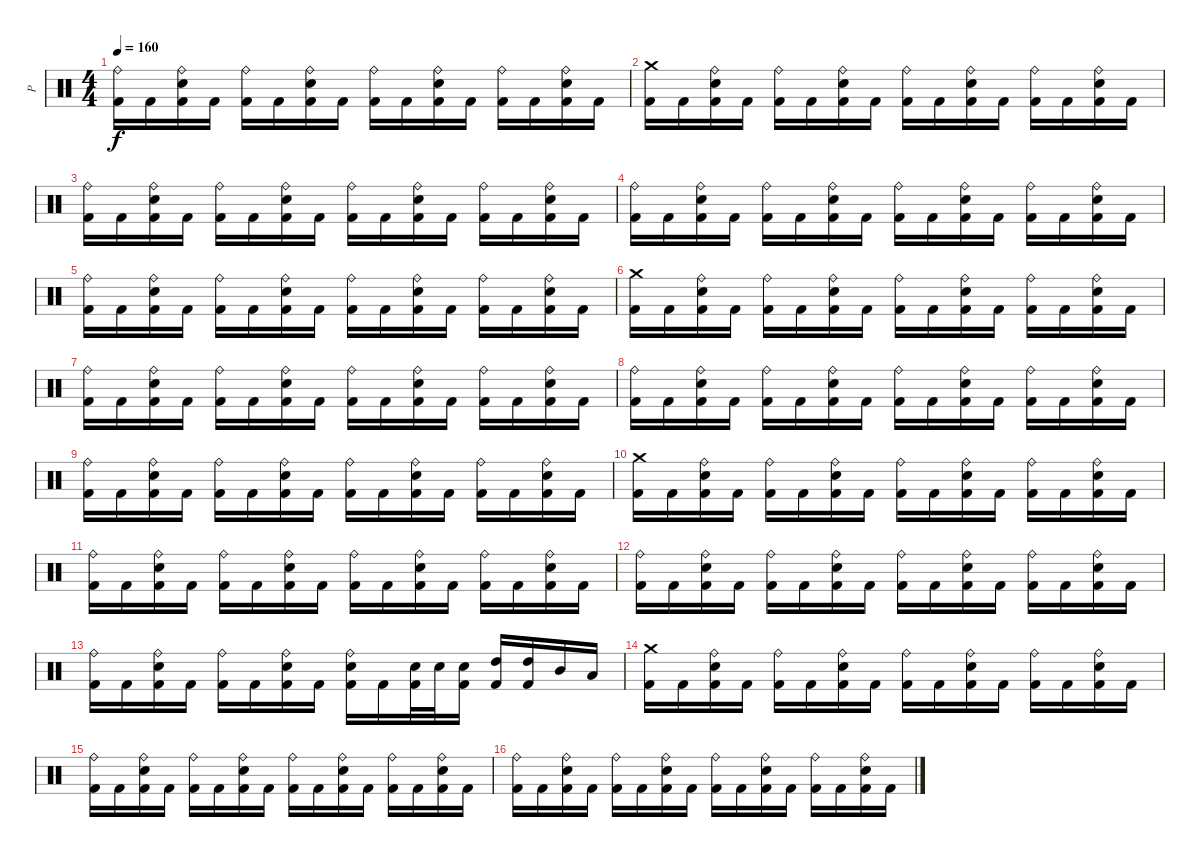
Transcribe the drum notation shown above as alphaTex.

\track ("P" "P") {instrument percussion}
\staff {score}
\articulation defaults
\ts (4 4)
\tempo 160
\clef neutral
\ks c
("Ride (bell)" "Kick (hit) 2").16{dy f} "Kick (hit) 2".16 ("Ride (bell)" "Electric Snare (hit)" "Kick (hit) 2").16 "Kick (hit) 2".16 ("Ride (bell)" "Kick (hit) 2").16 "Kick (hit) 2".16 ("Ride (bell)" "Electric Snare (hit)" "Kick (hit) 2").16 "Kick (hit) 2".16 ("Ride (bell)" "Kick (hit) 2").16 "Kick (hit) 2".16 ("Ride (bell)" "Electric Snare (hit)" "Kick (hit) 2").16 "Kick (hit) 2".16 ("Ride (bell)" "Kick (hit) 2").16 "Kick (hit) 2".16 ("Ride (bell)" "Electric Snare (hit)" "Kick (hit) 2").16 "Kick (hit) 2".16 |
("Crash medium (hit)" "Kick (hit) 2").16 "Kick (hit) 2".16 ("Ride (bell)" "Electric Snare (hit)" "Kick (hit) 2").16 "Kick (hit) 2".16 ("Ride (bell)" "Kick (hit) 2").16 "Kick (hit) 2".16 ("Ride (bell)" "Electric Snare (hit)" "Kick (hit) 2").16 "Kick (hit) 2".16 ("Ride (bell)" "Kick (hit) 2").16 "Kick (hit) 2".16 ("Ride (bell)" "Electric Snare (hit)" "Kick (hit) 2").16 "Kick (hit) 2".16 ("Ride (bell)" "Kick (hit) 2").16 "Kick (hit) 2".16 ("Ride (bell)" "Electric Snare (hit)" "Kick (hit) 2").16 "Kick (hit) 2".16 |
("Ride (bell)" "Kick (hit) 2").16 "Kick (hit) 2".16 ("Ride (bell)" "Electric Snare (hit)" "Kick (hit) 2").16 "Kick (hit) 2".16 ("Ride (bell)" "Kick (hit) 2").16 "Kick (hit) 2".16 ("Ride (bell)" "Electric Snare (hit)" "Kick (hit) 2").16 "Kick (hit) 2".16 ("Ride (bell)" "Kick (hit) 2").16 "Kick (hit) 2".16 ("Ride (bell)" "Electric Snare (hit)" "Kick (hit) 2").16 "Kick (hit) 2".16 ("Ride (bell)" "Kick (hit) 2").16 "Kick (hit) 2".16 ("Ride (bell)" "Electric Snare (hit)" "Kick (hit) 2").16 "Kick (hit) 2".16 |
("Ride (bell)" "Kick (hit) 2").16 "Kick (hit) 2".16 ("Ride (bell)" "Electric Snare (hit)" "Kick (hit) 2").16 "Kick (hit) 2".16 ("Ride (bell)" "Kick (hit) 2").16 "Kick (hit) 2".16 ("Ride (bell)" "Electric Snare (hit)" "Kick (hit) 2").16 "Kick (hit) 2".16 ("Ride (bell)" "Kick (hit) 2").16 "Kick (hit) 2".16 ("Ride (bell)" "Electric Snare (hit)" "Kick (hit) 2").16 "Kick (hit) 2".16 ("Ride (bell)" "Kick (hit) 2").16 "Kick (hit) 2".16 ("Ride (bell)" "Electric Snare (hit)" "Kick (hit) 2").16 "Kick (hit) 2".16 |
("Ride (bell)" "Kick (hit) 2").16 "Kick (hit) 2".16 ("Ride (bell)" "Electric Snare (hit)" "Kick (hit) 2").16 "Kick (hit) 2".16 ("Ride (bell)" "Kick (hit) 2").16 "Kick (hit) 2".16 ("Ride (bell)" "Electric Snare (hit)" "Kick (hit) 2").16 "Kick (hit) 2".16 ("Ride (bell)" "Kick (hit) 2").16 "Kick (hit) 2".16 ("Ride (bell)" "Electric Snare (hit)" "Kick (hit) 2").16 "Kick (hit) 2".16 ("Ride (bell)" "Kick (hit) 2").16 "Kick (hit) 2".16 ("Ride (bell)" "Electric Snare (hit)" "Kick (hit) 2").16 "Kick (hit) 2".16 |
("Crash medium (hit)" "Kick (hit) 2").16 "Kick (hit) 2".16 ("Ride (bell)" "Electric Snare (hit)" "Kick (hit) 2").16 "Kick (hit) 2".16 ("Ride (bell)" "Kick (hit) 2").16 "Kick (hit) 2".16 ("Ride (bell)" "Electric Snare (hit)" "Kick (hit) 2").16 "Kick (hit) 2".16 ("Ride (bell)" "Kick (hit) 2").16 "Kick (hit) 2".16 ("Ride (bell)" "Electric Snare (hit)" "Kick (hit) 2").16 "Kick (hit) 2".16 ("Ride (bell)" "Kick (hit) 2").16 "Kick (hit) 2".16 ("Ride (bell)" "Electric Snare (hit)" "Kick (hit) 2").16 "Kick (hit) 2".16 |
("Ride (bell)" "Kick (hit) 2").16 "Kick (hit) 2".16 ("Ride (bell)" "Electric Snare (hit)" "Kick (hit) 2").16 "Kick (hit) 2".16 ("Ride (bell)" "Kick (hit) 2").16 "Kick (hit) 2".16 ("Ride (bell)" "Electric Snare (hit)" "Kick (hit) 2").16 "Kick (hit) 2".16 ("Ride (bell)" "Kick (hit) 2").16 "Kick (hit) 2".16 ("Ride (bell)" "Electric Snare (hit)" "Kick (hit) 2").16 "Kick (hit) 2".16 ("Ride (bell)" "Kick (hit) 2").16 "Kick (hit) 2".16 ("Ride (bell)" "Electric Snare (hit)" "Kick (hit) 2").16 "Kick (hit) 2".16 |
("Ride (bell)" "Kick (hit) 2").16 "Kick (hit) 2".16 ("Ride (bell)" "Electric Snare (hit)" "Kick (hit) 2").16 "Kick (hit) 2".16 ("Ride (bell)" "Kick (hit) 2").16 "Kick (hit) 2".16 ("Ride (bell)" "Electric Snare (hit)" "Kick (hit) 2").16 "Kick (hit) 2".16 ("Ride (bell)" "Kick (hit) 2").16 "Kick (hit) 2".16 ("Ride (bell)" "Electric Snare (hit)" "Kick (hit) 2").16 "Kick (hit) 2".16 ("Ride (bell)" "Kick (hit) 2").16 "Kick (hit) 2".16 ("Ride (bell)" "Electric Snare (hit)" "Kick (hit) 2").16 "Kick (hit) 2".16 |
("Ride (bell)" "Kick (hit) 2").16 "Kick (hit) 2".16 ("Ride (bell)" "Electric Snare (hit)" "Kick (hit) 2").16 "Kick (hit) 2".16 ("Ride (bell)" "Kick (hit) 2").16 "Kick (hit) 2".16 ("Ride (bell)" "Electric Snare (hit)" "Kick (hit) 2").16 "Kick (hit) 2".16 ("Ride (bell)" "Kick (hit) 2").16 "Kick (hit) 2".16 ("Ride (bell)" "Electric Snare (hit)" "Kick (hit) 2").16 "Kick (hit) 2".16 ("Ride (bell)" "Kick (hit) 2").16 "Kick (hit) 2".16 ("Ride (bell)" "Electric Snare (hit)" "Kick (hit) 2").16 "Kick (hit) 2".16 |
("Crash medium (hit)" "Kick (hit) 2").16 "Kick (hit) 2".16 ("Ride (bell)" "Electric Snare (hit)" "Kick (hit) 2").16 "Kick (hit) 2".16 ("Ride (bell)" "Kick (hit) 2").16 "Kick (hit) 2".16 ("Ride (bell)" "Electric Snare (hit)" "Kick (hit) 2").16 "Kick (hit) 2".16 ("Ride (bell)" "Kick (hit) 2").16 "Kick (hit) 2".16 ("Ride (bell)" "Electric Snare (hit)" "Kick (hit) 2").16 "Kick (hit) 2".16 ("Ride (bell)" "Kick (hit) 2").16 "Kick (hit) 2".16 ("Ride (bell)" "Electric Snare (hit)" "Kick (hit) 2").16 "Kick (hit) 2".16 |
("Ride (bell)" "Kick (hit) 2").16 "Kick (hit) 2".16 ("Ride (bell)" "Electric Snare (hit)" "Kick (hit) 2").16 "Kick (hit) 2".16 ("Ride (bell)" "Kick (hit) 2").16 "Kick (hit) 2".16 ("Ride (bell)" "Electric Snare (hit)" "Kick (hit) 2").16 "Kick (hit) 2".16 ("Ride (bell)" "Kick (hit) 2").16 "Kick (hit) 2".16 ("Ride (bell)" "Electric Snare (hit)" "Kick (hit) 2").16 "Kick (hit) 2".16 ("Ride (bell)" "Kick (hit) 2").16 "Kick (hit) 2".16 ("Ride (bell)" "Electric Snare (hit)" "Kick (hit) 2").16 "Kick (hit) 2".16 |
("Ride (bell)" "Kick (hit) 2").16 "Kick (hit) 2".16 ("Ride (bell)" "Electric Snare (hit)" "Kick (hit) 2").16 "Kick (hit) 2".16 ("Ride (bell)" "Kick (hit) 2").16 "Kick (hit) 2".16 ("Ride (bell)" "Electric Snare (hit)" "Kick (hit) 2").16 "Kick (hit) 2".16 ("Ride (bell)" "Kick (hit) 2").16 "Kick (hit) 2".16 ("Ride (bell)" "Electric Snare (hit)" "Kick (hit) 2").16 "Kick (hit) 2".16 ("Ride (bell)" "Kick (hit) 2").16 "Kick (hit) 2".16 ("Ride (bell)" "Electric Snare (hit)" "Kick (hit) 2").16 "Kick (hit) 2".16 |
("Ride (bell)" "Kick (hit) 2").16 "Kick (hit) 2".16 ("Ride (bell)" "Electric Snare (hit)" "Kick (hit) 2").16 "Kick (hit) 2".16 ("Ride (bell)" "Kick (hit) 2").16 "Kick (hit) 2".16 ("Ride (bell)" "Electric Snare (hit)" "Kick (hit) 2").16 "Kick (hit) 2".16 ("Ride (bell)" "Electric Snare (hit)" "Kick (hit) 2").16 "Kick (hit) 2".16 ("Electric Snare (hit)" "Kick (hit) 2").32 "Electric Snare (hit)".32 ("Electric Snare (hit)" "Kick (hit) 2").16 ("High Tom (hit)" "Kick (hit) 2").16 ("High Tom (hit)" "Kick (hit) 2").16 "Mid Tom (hit)".16 "Low Tom (hit)".16 |
("Crash medium (hit)" "Kick (hit) 2").16 "Kick (hit) 2".16 ("Ride (bell)" "Electric Snare (hit)" "Kick (hit) 2").16 "Kick (hit) 2".16 ("Ride (bell)" "Kick (hit) 2").16 "Kick (hit) 2".16 ("Ride (bell)" "Electric Snare (hit)" "Kick (hit) 2").16 "Kick (hit) 2".16 ("Ride (bell)" "Kick (hit) 2").16 "Kick (hit) 2".16 ("Ride (bell)" "Electric Snare (hit)" "Kick (hit) 2").16 "Kick (hit) 2".16 ("Ride (bell)" "Kick (hit) 2").16 "Kick (hit) 2".16 ("Ride (bell)" "Electric Snare (hit)" "Kick (hit) 2").16 "Kick (hit) 2".16 |
("Ride (bell)" "Kick (hit) 2").16 "Kick (hit) 2".16 ("Ride (bell)" "Electric Snare (hit)" "Kick (hit) 2").16 "Kick (hit) 2".16 ("Ride (bell)" "Kick (hit) 2").16 "Kick (hit) 2".16 ("Ride (bell)" "Electric Snare (hit)" "Kick (hit) 2").16 "Kick (hit) 2".16 ("Ride (bell)" "Kick (hit) 2").16 "Kick (hit) 2".16 ("Ride (bell)" "Electric Snare (hit)" "Kick (hit) 2").16 "Kick (hit) 2".16 ("Ride (bell)" "Kick (hit) 2").16 "Kick (hit) 2".16 ("Ride (bell)" "Electric Snare (hit)" "Kick (hit) 2").16 "Kick (hit) 2".16 |
("Ride (bell)" "Kick (hit) 2").16 "Kick (hit) 2".16 ("Ride (bell)" "Electric Snare (hit)" "Kick (hit) 2").16 "Kick (hit) 2".16 ("Ride (bell)" "Kick (hit) 2").16 "Kick (hit) 2".16 ("Ride (bell)" "Electric Snare (hit)" "Kick (hit) 2").16 "Kick (hit) 2".16 ("Ride (bell)" "Kick (hit) 2").16 "Kick (hit) 2".16 ("Ride (bell)" "Electric Snare (hit)" "Kick (hit) 2").16 "Kick (hit) 2".16 ("Ride (bell)" "Kick (hit) 2").16 "Kick (hit) 2".16 ("Ride (bell)" "Electric Snare (hit)" "Kick (hit) 2").16 "Kick (hit) 2".16
